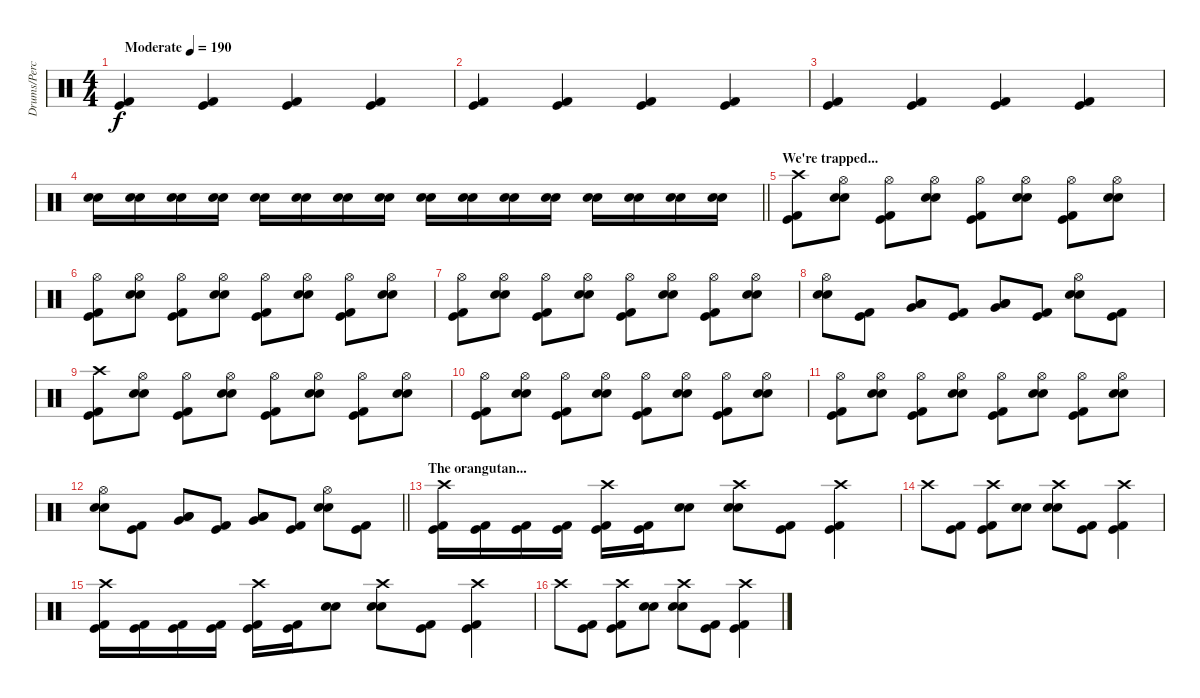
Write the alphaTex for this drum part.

\track ("Drums/Percussion" "Drums/Perc") {instrument percussion}
\staff {score}
\articulation defaults
\ts (4 4)
\tempo (190 "Moderate")
\clef neutral
\ks c
("Kick (hit)" "Kick (hit) 2").4{dy f} ("Kick (hit)" "Kick (hit) 2").4 ("Kick (hit)" "Kick (hit) 2").4 ("Kick (hit)" "Kick (hit) 2").4 |
("Kick (hit)" "Kick (hit) 2").4 ("Kick (hit)" "Kick (hit) 2").4 ("Kick (hit)" "Kick (hit) 2").4 ("Kick (hit)" "Kick (hit) 2").4 |
("Kick (hit)" "Kick (hit) 2").4 ("Kick (hit)" "Kick (hit) 2").4 ("Kick (hit)" "Kick (hit) 2").4 ("Kick (hit)" "Kick (hit) 2").4 |
\barLineRight lightlight
("Electric Snare (hit)" "Snare (hit) 2").16 ("Electric Snare (hit)" "Snare (hit) 2").16 ("Electric Snare (hit)" "Snare (hit) 2").16 ("Electric Snare (hit)" "Snare (hit) 2").16 ("Electric Snare (hit)" "Snare (hit) 2").16 ("Electric Snare (hit)" "Snare (hit) 2").16 ("Electric Snare (hit)" "Snare (hit) 2").16 ("Electric Snare (hit)" "Snare (hit) 2").16 ("Electric Snare (hit)" "Snare (hit) 2").16 ("Electric Snare (hit)" "Snare (hit) 2").16 ("Electric Snare (hit)" "Snare (hit) 2").16 ("Electric Snare (hit)" "Snare (hit) 2").16 ("Electric Snare (hit)" "Snare (hit) 2").16 ("Electric Snare (hit)" "Snare (hit) 2").16 ("Electric Snare (hit)" "Snare (hit) 2").16 ("Electric Snare (hit)" "Snare (hit) 2").16 |
\section ("" "We're trapped...")
("Crash high (hit)" "Kick (hit)" "Kick (hit) 2").8 ("Hi-Hat (open)" "Electric Snare (hit)" "Snare (hit) 2").8 ("Hi-Hat (open)" "Kick (hit)" "Kick (hit) 2").8 ("Hi-Hat (open)" "Electric Snare (hit)" "Snare (hit) 2").8 ("Hi-Hat (open)" "Kick (hit)" "Kick (hit) 2").8 ("Hi-Hat (open)" "Electric Snare (hit)" "Snare (hit) 2").8 ("Hi-Hat (open)" "Kick (hit)" "Kick (hit) 2").8 ("Hi-Hat (open)" "Electric Snare (hit)" "Snare (hit) 2").8 |
("Hi-Hat (open)" "Kick (hit)" "Kick (hit) 2").8 ("Hi-Hat (open)" "Electric Snare (hit)" "Snare (hit) 2").8 ("Hi-Hat (open)" "Kick (hit)" "Kick (hit) 2").8 ("Hi-Hat (open)" "Electric Snare (hit)" "Snare (hit) 2").8 ("Hi-Hat (open)" "Kick (hit)" "Kick (hit) 2").8 ("Hi-Hat (open)" "Electric Snare (hit)" "Snare (hit) 2").8 ("Hi-Hat (open)" "Kick (hit)" "Kick (hit) 2").8 ("Hi-Hat (open)" "Electric Snare (hit)" "Snare (hit) 2").8 |
("Hi-Hat (open)" "Kick (hit)" "Kick (hit) 2").8 ("Hi-Hat (open)" "Electric Snare (hit)" "Snare (hit) 2").8 ("Hi-Hat (open)" "Kick (hit)" "Kick (hit) 2").8 ("Hi-Hat (open)" "Electric Snare (hit)" "Snare (hit) 2").8 ("Hi-Hat (open)" "Kick (hit)" "Kick (hit) 2").8 ("Hi-Hat (open)" "Electric Snare (hit)" "Snare (hit) 2").8 ("Hi-Hat (open)" "Kick (hit)" "Kick (hit) 2").8 ("Hi-Hat (open)" "Electric Snare (hit)" "Snare (hit) 2").8 |
("Hi-Hat (open)" "Electric Snare (hit)" "Snare (hit) 2").8 ("Kick (hit)" "Kick (hit) 2").8 ("Low Floor Tom (hit)" "Very Low Tom (hit)" "Low Tom (hit)").8 ("Kick (hit)" "Kick (hit) 2").8 ("Low Floor Tom (hit)" "Very Low Tom (hit)" "Low Tom (hit)").8 ("Kick (hit)" "Kick (hit) 2").8 ("Hi-Hat (open)" "Electric Snare (hit)" "Snare (hit) 2").8 ("Kick (hit)" "Kick (hit) 2").8 |
("Crash high (hit)" "Kick (hit)" "Kick (hit) 2").8 ("Hi-Hat (open)" "Electric Snare (hit)" "Snare (hit) 2").8 ("Hi-Hat (open)" "Kick (hit)" "Kick (hit) 2").8 ("Hi-Hat (open)" "Electric Snare (hit)" "Snare (hit) 2").8 ("Hi-Hat (open)" "Kick (hit)" "Kick (hit) 2").8 ("Hi-Hat (open)" "Electric Snare (hit)" "Snare (hit) 2").8 ("Hi-Hat (open)" "Kick (hit)" "Kick (hit) 2").8 ("Hi-Hat (open)" "Electric Snare (hit)" "Snare (hit) 2").8 |
("Hi-Hat (open)" "Kick (hit)" "Kick (hit) 2").8 ("Hi-Hat (open)" "Electric Snare (hit)" "Snare (hit) 2").8 ("Hi-Hat (open)" "Kick (hit)" "Kick (hit) 2").8 ("Hi-Hat (open)" "Electric Snare (hit)" "Snare (hit) 2").8 ("Hi-Hat (open)" "Kick (hit)" "Kick (hit) 2").8 ("Hi-Hat (open)" "Electric Snare (hit)" "Snare (hit) 2").8 ("Hi-Hat (open)" "Kick (hit)" "Kick (hit) 2").8 ("Hi-Hat (open)" "Electric Snare (hit)" "Snare (hit) 2").8 |
("Hi-Hat (open)" "Kick (hit)" "Kick (hit) 2").8 ("Hi-Hat (open)" "Electric Snare (hit)" "Snare (hit) 2").8 ("Hi-Hat (open)" "Kick (hit)" "Kick (hit) 2").8 ("Hi-Hat (open)" "Electric Snare (hit)" "Snare (hit) 2").8 ("Hi-Hat (open)" "Kick (hit)" "Kick (hit) 2").8 ("Hi-Hat (open)" "Electric Snare (hit)" "Snare (hit) 2").8 ("Hi-Hat (open)" "Kick (hit)" "Kick (hit) 2").8 ("Hi-Hat (open)" "Electric Snare (hit)" "Snare (hit) 2").8 |
\barLineRight lightlight
("Hi-Hat (open)" "Electric Snare (hit)" "Snare (hit) 2").8 ("Kick (hit)" "Kick (hit) 2").8 ("Low Floor Tom (hit)" "Very Low Tom (hit)" "Low Tom (hit)").8 ("Kick (hit)" "Kick (hit) 2").8 ("Low Floor Tom (hit)" "Very Low Tom (hit)" "Low Tom (hit)").8 ("Kick (hit)" "Kick (hit) 2").8 ("Hi-Hat (open)" "Electric Snare (hit)" "Snare (hit) 2").8 ("Kick (hit)" "Kick (hit) 2").8 |
\section ("" "The orangutan...")
("Crash high (hit)" "Kick (hit)" "Kick (hit) 2").16 ("Kick (hit)" "Kick (hit) 2").16 ("Kick (hit)" "Kick (hit) 2").16 ("Kick (hit)" "Kick (hit) 2").16 ("Crash high (hit)" "Kick (hit)" "Kick (hit) 2").16 ("Kick (hit)" "Kick (hit) 2").16 ("Electric Snare (hit)" "Snare (hit) 2").8 ("Crash high (hit)" "Electric Snare (hit)" "Snare (hit) 2").8 ("Kick (hit)" "Kick (hit) 2").8 ("Crash high (hit)" "Kick (hit)" "Kick (hit) 2").4 |
"Crash high (hit)".8 ("Kick (hit)" "Kick (hit) 2").8 ("Crash high (hit)" "Kick (hit)" "Kick (hit) 2").8 ("Electric Snare (hit)" "Snare (hit) 2").8 ("Crash high (hit)" "Electric Snare (hit)" "Snare (hit) 2").8 ("Kick (hit)" "Kick (hit) 2").8 ("Crash high (hit)" "Kick (hit)" "Kick (hit) 2").4 |
("Crash high (hit)" "Kick (hit)" "Kick (hit) 2").16 ("Kick (hit)" "Kick (hit) 2").16 ("Kick (hit)" "Kick (hit) 2").16 ("Kick (hit)" "Kick (hit) 2").16 ("Crash high (hit)" "Kick (hit)" "Kick (hit) 2").16 ("Kick (hit)" "Kick (hit) 2").16 ("Electric Snare (hit)" "Snare (hit) 2").8 ("Crash high (hit)" "Electric Snare (hit)" "Snare (hit) 2").8 ("Kick (hit)" "Kick (hit) 2").8 ("Crash high (hit)" "Kick (hit)" "Kick (hit) 2").4 |
"Crash high (hit)".8 ("Kick (hit)" "Kick (hit) 2").8 ("Crash high (hit)" "Kick (hit)" "Kick (hit) 2").8 ("Electric Snare (hit)" "Snare (hit) 2").8 ("Crash high (hit)" "Electric Snare (hit)" "Snare (hit) 2").8 ("Kick (hit)" "Kick (hit) 2").8 ("Crash high (hit)" "Kick (hit)" "Kick (hit) 2").4
